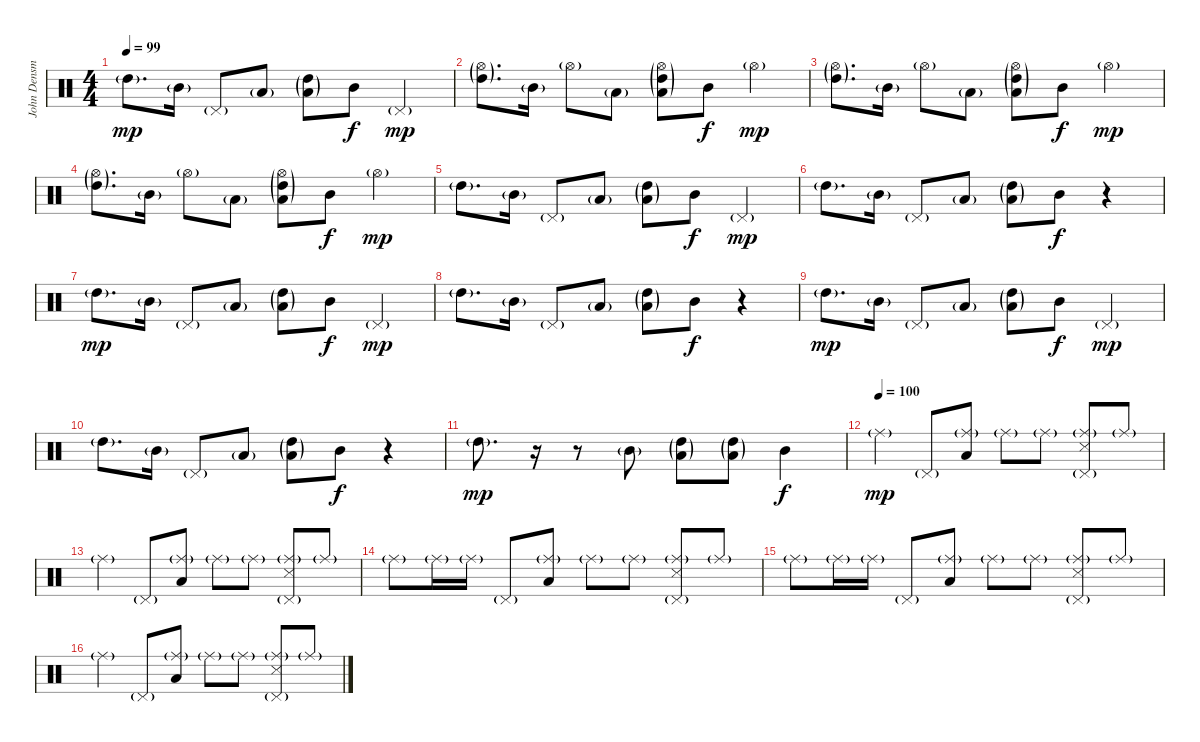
\track ("John Densmore - Drums" "John Densm") {instrument percussion}
\staff {score}
\articulation defaults
\ts (4 4)
\tempo 99
\clef neutral
\ks c "High Tom (hit)"{g}.8{d dy mp} "Mid Tom (hit)"{g}.16 "Pedal Hi-Hat (hit)"{g}.8 "Low Tom (hit)"{g}.8
("Low Tom (hit)"{g} "High Tom (hit)"{g}).8 "Mid Tom (hit)".8{dy f} "Pedal Hi-Hat (hit)"{g}.4{dy mp} |
("Hi-Hat (open)"{g} "High Tom (hit)"{g}).8{d} "Mid Tom (hit)"{g}.16 "Hi-Hat (open)"{g}.8 "Low Tom (hit)"{g}.8 ("Hi-Hat (open)"{g} "Low Tom (hit)"{g} "High Tom (hit)"{g}).8 "Mid Tom (hit)".8{dy f} "Hi-Hat (open)"{g}.4{dy mp} |
("Hi-Hat (open)"{g} "High Tom (hit)"{g}).8{d} "Mid Tom (hit)"{g}.16 "Hi-Hat (open)"{g}.8 "Low Tom (hit)"{g}.8 ("Hi-Hat (open)"{g} "Low Tom (hit)"{g} "High Tom (hit)"{g}).8 "Mid Tom (hit)".8{dy f} "Hi-Hat (open)"{g}.4{dy mp} |
("Hi-Hat (open)"{g} "High Tom (hit)"{g}).8{d} "Mid Tom (hit)"{g}.16 "Hi-Hat (open)"{g}.8 "Low Tom (hit)"{g}.8 ("Hi-Hat (open)"{g} "Low Tom (hit)"{g} "High Tom (hit)"{g}).8 "Mid Tom (hit)".8{dy f} "Hi-Hat (open)"{g}.4{dy mp} |
"High Tom (hit)"{g}.8{d} "Mid Tom (hit)"{g}.16 "Pedal Hi-Hat (hit)"{g}.8 "Low Tom (hit)"{g}.8 ("Low Tom (hit)"{g} "High Tom (hit)"{g}).8 "Mid Tom (hit)".8{dy f} "Pedal Hi-Hat (hit)"{g}.4{dy mp} |
"High Tom (hit)"{g}.8{d} "Mid Tom (hit)"{g}.16 "Pedal Hi-Hat (hit)"{g}.8 "Low Tom (hit)"{g}.8 ("Low Tom (hit)"{g} "High Tom (hit)"{g}).8 "Mid Tom (hit)".8{dy f} r.4 |
"High Tom (hit)"{g}.8{d dy mp} "Mid Tom (hit)"{g}.16 "Pedal Hi-Hat (hit)"{g}.8 "Low Tom (hit)"{g}.8 ("Low Tom (hit)"{g} "High Tom (hit)"{g}).8 "Mid Tom (hit)".8{dy f} "Pedal Hi-Hat (hit)"{g}.4{dy mp} |
"High Tom (hit)"{g}.8{d} "Mid Tom (hit)"{g}.16 "Pedal Hi-Hat (hit)"{g}.8 "Low Tom (hit)"{g}.8 ("Low Tom (hit)"{g} "High Tom (hit)"{g}).8 "Mid Tom (hit)".8{dy f} r.4 |
"High Tom (hit)"{g}.8{d dy mp} "Mid Tom (hit)"{g}.16 "Pedal Hi-Hat (hit)"{g}.8 "Low Tom (hit)"{g}.8 ("Low Tom (hit)"{g} "High Tom (hit)"{g}).8 "Mid Tom (hit)".8{dy f} "Pedal Hi-Hat (hit)"{g}.4{dy mp} |
"High Tom (hit)"{g}.8{d} "Mid Tom (hit)"{g}.16 "Pedal Hi-Hat (hit)"{g}.8 "Low Tom (hit)"{g}.8 ("Low Tom (hit)"{g} "High Tom (hit)"{g}).8 "Mid Tom (hit)".8{dy f} r.4 |
"High Tom (hit)"{g}.8{d dy mp} r.16 r.8 "Mid Tom (hit)"{g}.8 ("Low Tom (hit)"{g} "High Tom (hit)"{g}).8 ("Low Tom (hit)"{g} "High Tom (hit)"{g}).8 "Mid Tom (hit)".4{dy f} |
\tempo (100)
"Ride (middle)"{g}.4{dy mp} "Pedal Hi-Hat (hit)"{g}.8 ("Ride (middle)"{g} "Low Tom (hit)").8 "Ride (middle)"{g}.8 "Ride (middle)"{g}.8 ("Ride (middle)"{g} "Pedal Hi-Hat (hit)"{g} "Snare (side stick) 3").8 "Ride (middle)"{g}.8 |
"Ride (middle)"{g}.4 "Pedal Hi-Hat (hit)"{g}.8 ("Ride (middle)"{g} "Low Tom (hit)").8 "Ride (middle)"{g}.8 "Ride (middle)"{g}.8 ("Ride (middle)"{g} "Pedal Hi-Hat (hit)"{g} "Snare (side stick) 3").8 "Ride (middle)"{g}.8 |
"Ride (middle)"{g}.8 "Ride (middle)"{g}.16 "Ride (middle)"{g}.16 "Pedal Hi-Hat (hit)"{g}.8 ("Ride (middle)"{g} "Low Tom (hit)").8 "Ride (middle)"{g}.8 "Ride (middle)"{g}.8 ("Ride (middle)"{g} "Pedal Hi-Hat (hit)"{g} "Snare (side stick) 3").8 "Ride (middle)"{g}.8 |
"Ride (middle)"{g}.8 "Ride (middle)"{g}.16 "Ride (middle)"{g}.16 "Pedal Hi-Hat (hit)"{g}.8 ("Ride (middle)"{g} "Low Tom (hit)").8 "Ride (middle)"{g}.8 "Ride (middle)"{g}.8 ("Ride (middle)"{g} "Pedal Hi-Hat (hit)"{g} "Snare (side stick) 3").8 "Ride (middle)"{g}.8 |
"Ride (middle)"{g}.4 "Pedal Hi-Hat (hit)"{g}.8 ("Ride (middle)"{g} "Low Tom (hit)").8 "Ride (middle)"{g}.8 "Ride (middle)"{g}.8 ("Ride (middle)"{g} "Pedal Hi-Hat (hit)"{g} "Snare (side stick) 3").8 "Ride (middle)"{g}.8
